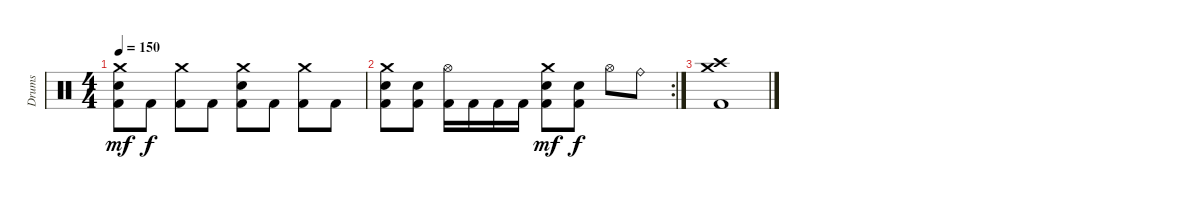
\track ("Drums" "Drums") {solo instrument percussion}
\staff {score}
\articulation defaults
\ts (4 4)
\tempo 150
\clef neutral
\ks c
("Crash medium (hit)" "Electric Snare (hit)" "Kick (hit) 2").8{dy mf} "Kick (hit) 2".8{dy f} ("Crash medium (hit)" "Kick (hit) 2").8 "Kick (hit) 2".8 ("Crash medium (hit)" "Electric Snare (hit)" "Kick (hit) 2").8 "Kick (hit) 2".8 ("Crash medium (hit)" "Kick (hit) 2").8 "Kick (hit) 2".8 |
\rc 2
("Crash medium (hit)" "Electric Snare (hit)" "Kick (hit) 2").8 ("Electric Snare (hit)" "Kick (hit) 2").8 ("Hi-Hat (open)" "Kick (hit) 2").16 "Kick (hit) 2".16 "Kick (hit) 2".16 "Kick (hit) 2".16 ("Crash medium (hit)" "Electric Snare (hit)" "Kick (hit) 2").8{dy mf} ("Electric Snare (hit)" "Kick (hit) 2").8{dy f} "Hi-Hat (open)".8 "Ride (bell)".8 |
("Crash medium (hit)" "Crash high (hit)" "Kick (hit) 2").1
